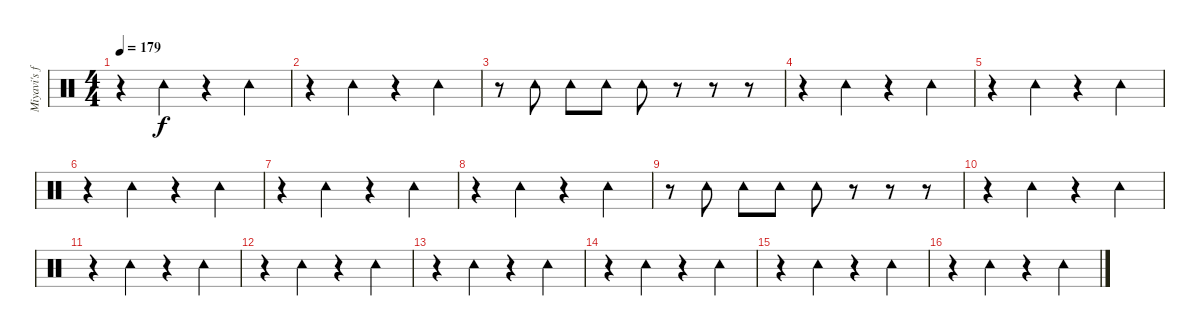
\track ("Miyavi's foot" "Miyavi's f") {instrument percussion}
\staff {score}
\articulation defaults
\ts (4 4)
\tempo 179
\clef neutral
\ks c
r.4{dy f} "Tambourine (hit)".4 r.4 "Tambourine (hit)".4 |
r.4 "Tambourine (hit)".4 r.4 "Tambourine (hit)".4 |
r.8 "Tambourine (hit)".8 "Tambourine (hit)".8 "Tambourine (hit)".8 "Tambourine (hit)".8 r.8 r.8 r.8 |
r.4 "Tambourine (hit)".4 r.4 "Tambourine (hit)".4 |
r.4 "Tambourine (hit)".4 r.4 "Tambourine (hit)".4 |
r.4 "Tambourine (hit)".4 r.4 "Tambourine (hit)".4 |
r.4 "Tambourine (hit)".4 r.4 "Tambourine (hit)".4 |
r.4 "Tambourine (hit)".4 r.4 "Tambourine (hit)".4 |
r.8 "Tambourine (hit)".8 "Tambourine (hit)".8 "Tambourine (hit)".8 "Tambourine (hit)".8 r.8 r.8 r.8 |
r.4 "Tambourine (hit)".4 r.4 "Tambourine (hit)".4 |
r.4 "Tambourine (hit)".4 r.4 "Tambourine (hit)".4 |
r.4 "Tambourine (hit)".4 r.4 "Tambourine (hit)".4 |
r.4 "Tambourine (hit)".4 r.4 "Tambourine (hit)".4 |
r.4 "Tambourine (hit)".4 r.4 "Tambourine (hit)".4 |
r.4 "Tambourine (hit)".4 r.4 "Tambourine (hit)".4 |
r.4 "Tambourine (hit)".4 r.4 "Tambourine (hit)".4
